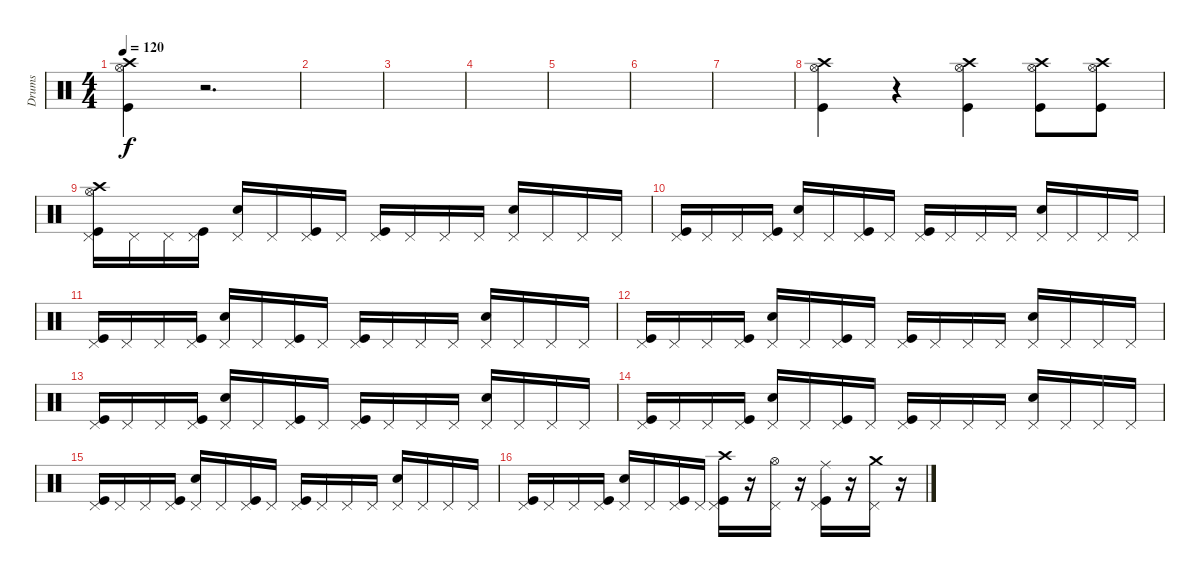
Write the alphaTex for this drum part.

\track ("Drums" "Drums") {instrument percussion}
\staff {score}
\articulation defaults
\ts (4 4)
\tempo 120
\clef neutral
\ks c
("Crash high (hit)" "Hi-Hat (open)" "Kick (hit)").4{dy f} r.2{d} |
|
|
|
|
|
|
("Crash high (hit)" "Hi-Hat (open)" "Kick (hit)").4 r.4 ("Crash high (hit)" "Hi-Hat (open)" "Kick (hit)").4 ("Crash high (hit)" "Hi-Hat (open)" "Kick (hit)").8 ("Crash high (hit)" "Hi-Hat (open)" "Kick (hit)").8 |
("Pedal Hi-Hat (hit)" "Crash high (hit)" "Hi-Hat (open)" "Kick (hit)").16 "Pedal Hi-Hat (hit)".16 "Pedal Hi-Hat (hit)".16 ("Pedal Hi-Hat (hit)" "Kick (hit)").16 ("Pedal Hi-Hat (hit)" "Snare (hit) 2").16 "Pedal Hi-Hat (hit)".16 ("Pedal Hi-Hat (hit)" "Kick (hit)").16 "Pedal Hi-Hat (hit)".16 ("Pedal Hi-Hat (hit)" "Kick (hit)").16 "Pedal Hi-Hat (hit)".16 "Pedal Hi-Hat (hit)".16 "Pedal Hi-Hat (hit)".16 ("Pedal Hi-Hat (hit)" "Snare (hit) 2").16 "Pedal Hi-Hat (hit)".16 "Pedal Hi-Hat (hit)".16 "Pedal Hi-Hat (hit)".16 |
("Pedal Hi-Hat (hit)" "Kick (hit)").16 "Pedal Hi-Hat (hit)".16 "Pedal Hi-Hat (hit)".16 ("Pedal Hi-Hat (hit)" "Kick (hit)").16 ("Pedal Hi-Hat (hit)" "Snare (hit) 2").16 "Pedal Hi-Hat (hit)".16 ("Pedal Hi-Hat (hit)" "Kick (hit)").16 "Pedal Hi-Hat (hit)".16 ("Pedal Hi-Hat (hit)" "Kick (hit)").16 "Pedal Hi-Hat (hit)".16 "Pedal Hi-Hat (hit)".16 "Pedal Hi-Hat (hit)".16 ("Pedal Hi-Hat (hit)" "Snare (hit) 2").16 "Pedal Hi-Hat (hit)".16 "Pedal Hi-Hat (hit)".16 "Pedal Hi-Hat (hit)".16 |
("Pedal Hi-Hat (hit)" "Kick (hit)").16 "Pedal Hi-Hat (hit)".16 "Pedal Hi-Hat (hit)".16 ("Pedal Hi-Hat (hit)" "Kick (hit)").16 ("Pedal Hi-Hat (hit)" "Snare (hit) 2").16 "Pedal Hi-Hat (hit)".16 ("Pedal Hi-Hat (hit)" "Kick (hit)").16 "Pedal Hi-Hat (hit)".16 ("Pedal Hi-Hat (hit)" "Kick (hit)").16 "Pedal Hi-Hat (hit)".16 "Pedal Hi-Hat (hit)".16 "Pedal Hi-Hat (hit)".16 ("Pedal Hi-Hat (hit)" "Snare (hit) 2").16 "Pedal Hi-Hat (hit)".16 "Pedal Hi-Hat (hit)".16 "Pedal Hi-Hat (hit)".16 |
("Pedal Hi-Hat (hit)" "Kick (hit)").16 "Pedal Hi-Hat (hit)".16 "Pedal Hi-Hat (hit)".16 ("Pedal Hi-Hat (hit)" "Kick (hit)").16 ("Pedal Hi-Hat (hit)" "Snare (hit) 2").16 "Pedal Hi-Hat (hit)".16 ("Pedal Hi-Hat (hit)" "Kick (hit)").16 "Pedal Hi-Hat (hit)".16 ("Pedal Hi-Hat (hit)" "Kick (hit)").16 "Pedal Hi-Hat (hit)".16 "Pedal Hi-Hat (hit)".16 "Pedal Hi-Hat (hit)".16 ("Pedal Hi-Hat (hit)" "Snare (hit) 2").16 "Pedal Hi-Hat (hit)".16 "Pedal Hi-Hat (hit)".16 "Pedal Hi-Hat (hit)".16 |
("Pedal Hi-Hat (hit)" "Kick (hit)").16 "Pedal Hi-Hat (hit)".16 "Pedal Hi-Hat (hit)".16 ("Pedal Hi-Hat (hit)" "Kick (hit)").16 ("Pedal Hi-Hat (hit)" "Snare (hit) 2").16 "Pedal Hi-Hat (hit)".16 ("Pedal Hi-Hat (hit)" "Kick (hit)").16 "Pedal Hi-Hat (hit)".16 ("Pedal Hi-Hat (hit)" "Kick (hit)").16 "Pedal Hi-Hat (hit)".16 "Pedal Hi-Hat (hit)".16 "Pedal Hi-Hat (hit)".16 ("Pedal Hi-Hat (hit)" "Snare (hit) 2").16 "Pedal Hi-Hat (hit)".16 "Pedal Hi-Hat (hit)".16 "Pedal Hi-Hat (hit)".16 |
("Pedal Hi-Hat (hit)" "Kick (hit)").16 "Pedal Hi-Hat (hit)".16 "Pedal Hi-Hat (hit)".16 ("Pedal Hi-Hat (hit)" "Kick (hit)").16 ("Pedal Hi-Hat (hit)" "Snare (hit) 2").16 "Pedal Hi-Hat (hit)".16 ("Pedal Hi-Hat (hit)" "Kick (hit)").16 "Pedal Hi-Hat (hit)".16 ("Pedal Hi-Hat (hit)" "Kick (hit)").16 "Pedal Hi-Hat (hit)".16 "Pedal Hi-Hat (hit)".16 "Pedal Hi-Hat (hit)".16 ("Pedal Hi-Hat (hit)" "Snare (hit) 2").16 "Pedal Hi-Hat (hit)".16 "Pedal Hi-Hat (hit)".16 "Pedal Hi-Hat (hit)".16 |
("Pedal Hi-Hat (hit)" "Kick (hit)").16 "Pedal Hi-Hat (hit)".16 "Pedal Hi-Hat (hit)".16 ("Pedal Hi-Hat (hit)" "Kick (hit)").16 ("Pedal Hi-Hat (hit)" "Snare (hit) 2").16 "Pedal Hi-Hat (hit)".16 ("Pedal Hi-Hat (hit)" "Kick (hit)").16 "Pedal Hi-Hat (hit)".16 ("Pedal Hi-Hat (hit)" "Kick (hit)").16 "Pedal Hi-Hat (hit)".16 "Pedal Hi-Hat (hit)".16 "Pedal Hi-Hat (hit)".16 ("Pedal Hi-Hat (hit)" "Snare (hit) 2").16 "Pedal Hi-Hat (hit)".16 "Pedal Hi-Hat (hit)".16 "Pedal Hi-Hat (hit)".16 |
("Pedal Hi-Hat (hit)" "Kick (hit)").16 "Pedal Hi-Hat (hit)".16 "Pedal Hi-Hat (hit)".16 ("Pedal Hi-Hat (hit)" "Kick (hit)").16 ("Pedal Hi-Hat (hit)" "Snare (hit) 2").16 "Pedal Hi-Hat (hit)".16 ("Pedal Hi-Hat (hit)" "Kick (hit)").16 "Pedal Hi-Hat (hit)".16 ("Pedal Hi-Hat (hit)" "Crash high (hit)" "Kick (hit)").16 r.16 ("Pedal Hi-Hat (hit)" "Hi-Hat (open)").16 r.16 ("Pedal Hi-Hat (hit)" "Ride (middle)" "Kick (hit)").16 r.16 ("Pedal Hi-Hat (hit)" "Crash medium (hit)").16 r.16
